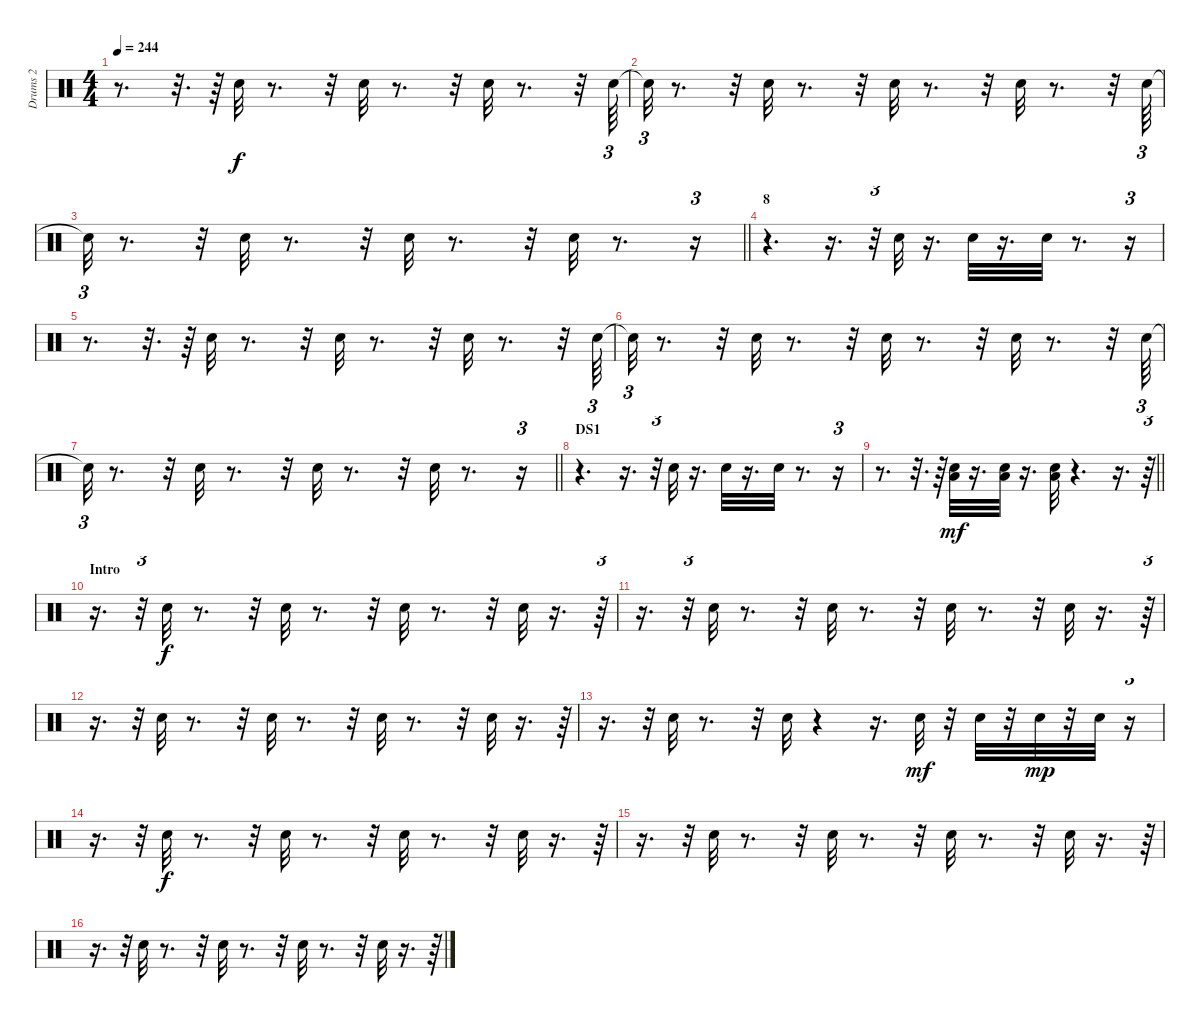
\track ("Drums 2" "Drums 2") {instrument percussion}
\staff {score}
\articulation defaults
\ts (4 4)
\tempo 244
\clef neutral
\ks c
r.8{d dy f} r.32{d} r.64 "Electric Snare (hit)".32 r.8{d} r.32 "Electric Snare (hit)".32 r.8{d} r.32 "Electric Snare (hit)".32 r.8{d} r.32 "Electric Snare (hit)".64{tu (3 2)} |
"Snare (hit)"{t}.32{tu (3 2)} r.8{d} r.32 "Electric Snare (hit)".32 r.8{d} r.32 "Electric Snare (hit)".32 r.8{d} r.32 "Electric Snare (hit)".32 r.8{d} r.32 "Electric Snare (hit)".64{tu (3 2)} |
\barLineRight lightlight "Snare (hit)"{t}.32{tu (3 2)}
r.8{d} r.32 "Electric Snare (hit)".32 r.8{d} r.32 "Electric Snare (hit)".32 r.8{d} r.32 "Electric Snare (hit)".32 r.8{d} r.16{tu (3 2)} |
\section ("" "8")
r.4{d} r.16{d} r.32{tu (3 2)} "Electric Snare (hit)".32 r.16{d} "Electric Snare (hit)".32 r.16{d} "Electric Snare (hit)".32 r.8{d} r.16{tu (3 2)} |
r.8{d} r.32{d} r.64 "Electric Snare (hit)".32 r.8{d} r.32 "Electric Snare (hit)".32 r.8{d} r.32 "Electric Snare (hit)".32 r.8{d} r.32 "Electric Snare (hit)".64{tu (3 2)} |
"Snare (hit)"{t}.32{tu (3 2)} r.8{d} r.32 "Electric Snare (hit)".32 r.8{d} r.32 "Electric Snare (hit)".32 r.8{d} r.32 "Electric Snare (hit)".32 r.8{d} r.32 "Electric Snare (hit)".64{tu (3 2)} |
\barLineRight lightlight "Snare (hit)"{t}.32{tu (3 2)}
r.8{d} r.32 "Electric Snare (hit)".32 r.8{d} r.32 "Electric Snare (hit)".32 r.8{d} r.32 "Electric Snare (hit)".32 r.8{d} r.16{tu (3 2)} |
\section ("" "DS1")
r.4{d} r.16{d} r.32{tu (3 2)} "Electric Snare (hit)".32 r.16{d} "Electric Snare (hit)".32 r.16{d} "Electric Snare (hit)".32 r.8{d} r.16{tu (3 2)} |
\barLineRight lightlight
r.8{d} r.32{d} r.64 ("Electric Snare (hit)" "Low Floor Tom (hit)").32{dy mf} r.16{d} ("Electric Snare (hit)" "Low Floor Tom (hit)").32 r.16{d} ("Electric Snare (hit)" "Low Floor Tom (hit)").32 r.4{d} r.16{d} r.64{tu (3 2)} |
\section ("" "Intro")
r.16{d} r.32{tu (3 2)} "Electric Snare (hit)".32{dy f} r.8{d} r.32 "Electric Snare (hit)".32 r.8{d} r.32 "Electric Snare (hit)".32 r.8{d} r.32 "Electric Snare (hit)".32 r.16{d} r.64{tu (3 2)} |
r.16{d} r.32{tu (3 2)} "Electric Snare (hit)".32 r.8{d} r.32 "Electric Snare (hit)".32 r.8{d} r.32 "Electric Snare (hit)".32 r.8{d} r.32 "Electric Snare (hit)".32 r.16{d} r.64{tu (3 2)} |
r.16{d} r.32{tu (3 2)} "Electric Snare (hit)".32 r.8{d} r.32 "Electric Snare (hit)".32 r.8{d} r.32 "Electric Snare (hit)".32 r.8{d} r.32 "Electric Snare (hit)".32 r.16{d} r.64{tu (3 2)} |
r.16{d} r.32{tu (3 2)} "Electric Snare (hit)".32 r.8{d} r.32 "Electric Snare (hit)".32 r.4 r.16{d} "Electric Snare (hit)".32{dy mf} r.32 "Electric Snare (hit)".32 r.32 "Electric Snare (hit)".32{dy mp} r.32 "Electric Snare (hit)".32 r.16{tu (3 2)} |
r.16{d} r.32{tu (3 2)} "Electric Snare (hit)".32{dy f} r.8{d} r.32 "Electric Snare (hit)".32 r.8{d} r.32 "Electric Snare (hit)".32 r.8{d} r.32 "Electric Snare (hit)".32 r.16{d} r.64{tu (3 2)} |
r.16{d} r.32{tu (3 2)} "Electric Snare (hit)".32 r.8{d} r.32 "Electric Snare (hit)".32 r.8{d} r.32 "Electric Snare (hit)".32 r.8{d} r.32 "Electric Snare (hit)".32 r.16{d} r.64{tu (3 2)} |
r.16{d} r.32{tu (3 2)} "Electric Snare (hit)".32 r.8{d} r.32 "Electric Snare (hit)".32 r.8{d} r.32 "Electric Snare (hit)".32 r.8{d} r.32 "Electric Snare (hit)".32 r.16{d} r.64{tu (3 2)}
